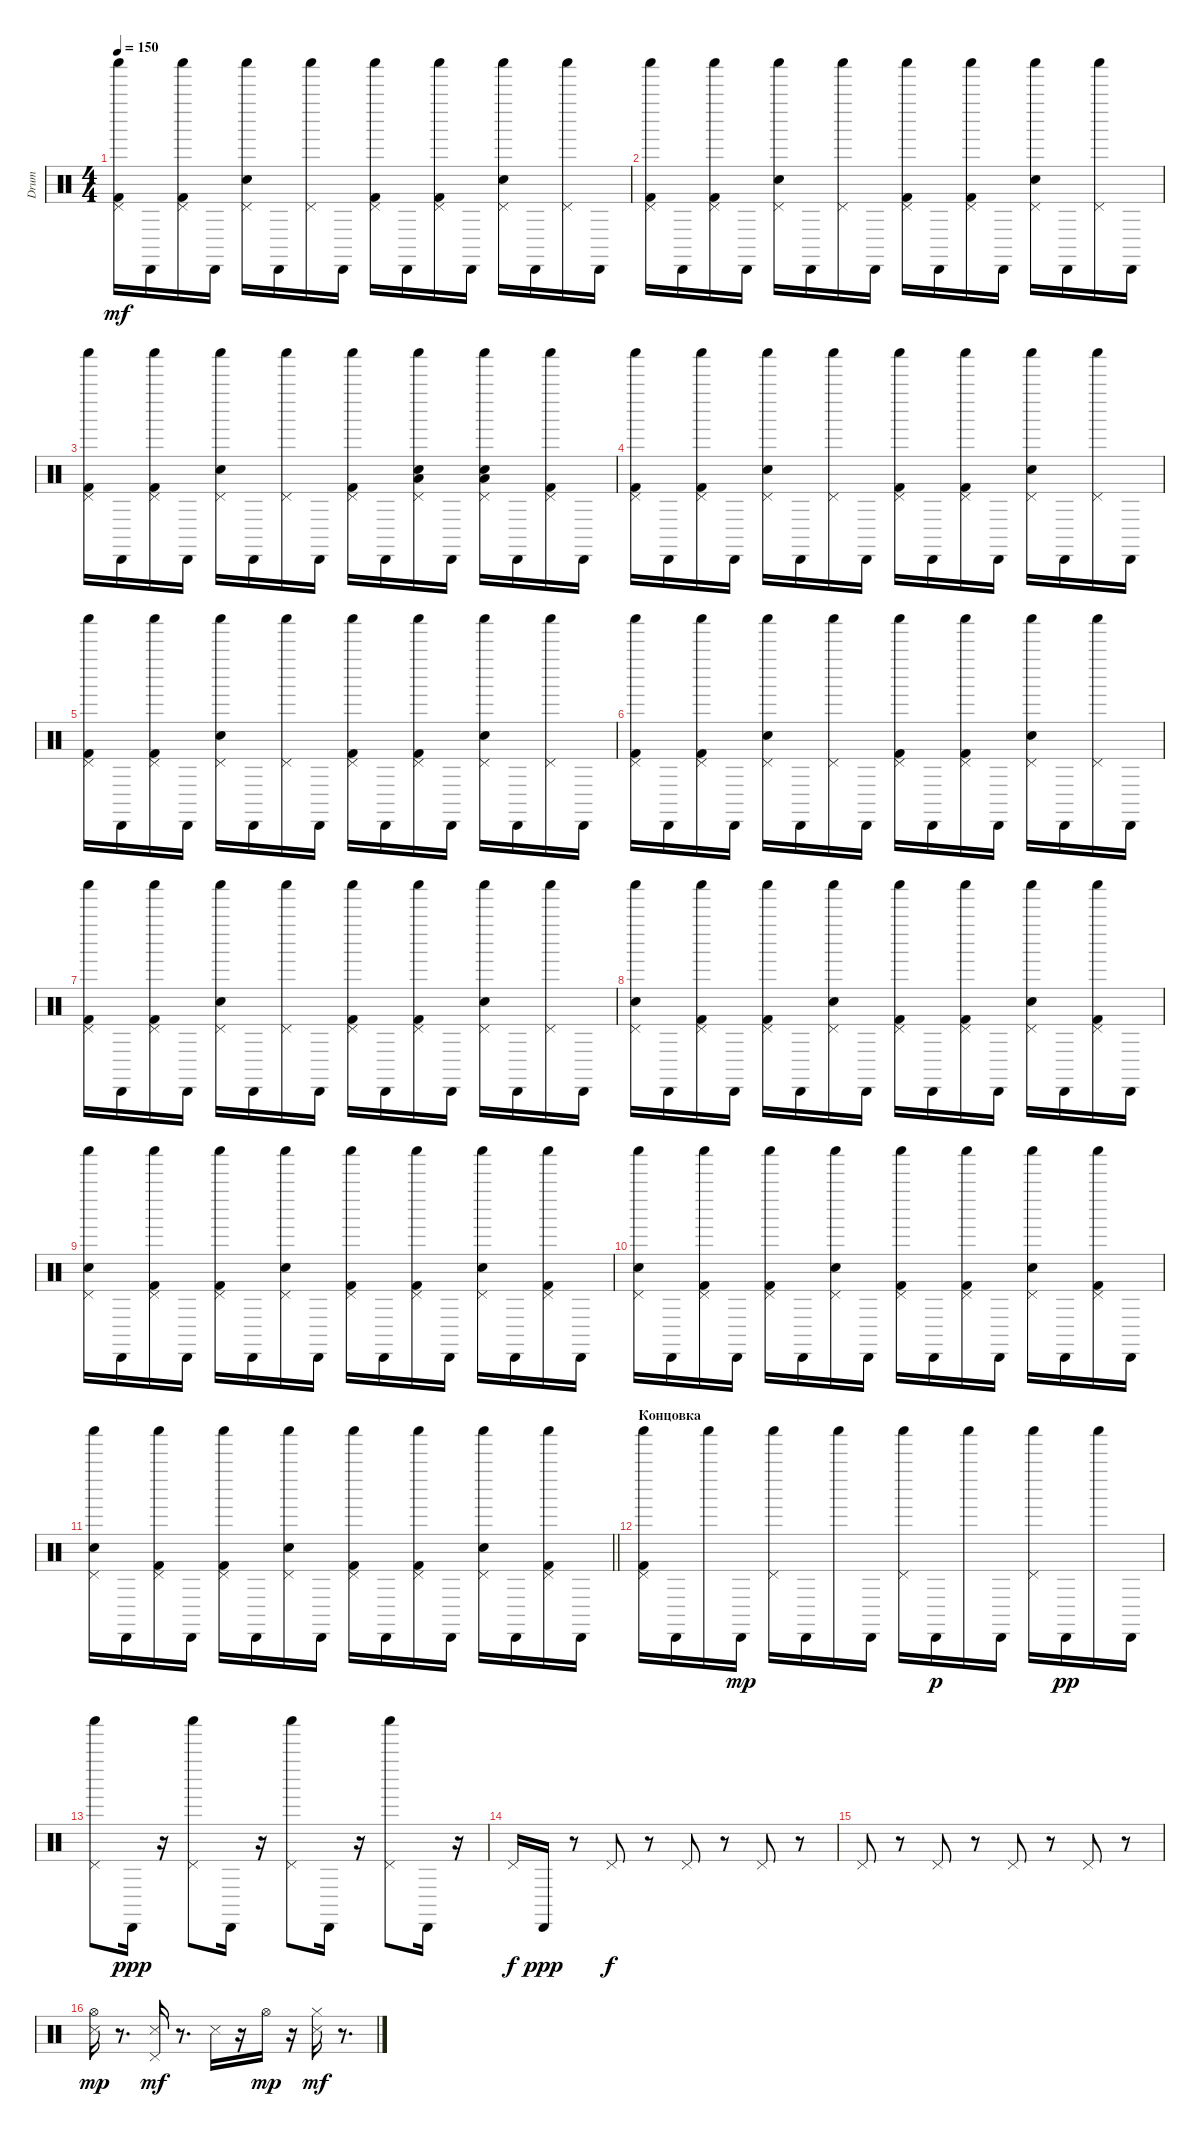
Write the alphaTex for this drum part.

\track ("Drum" "Drum") {instrument percussion}
\staff {score}
\articulation defaults
\ts (4 4)
\tempo 150
\clef neutral
\ks c
("Shaker (hit)" "Pedal Hi-Hat (hit)" "Kick (hit) 2").16{dy mf} "Cabasa (hit)".16 ("Pedal Hi-Hat (hit)" "Kick (hit) 2" "Shaker (hit)").16 "Cabasa (hit)".16 ("Shaker (hit)" "Pedal Hi-Hat (hit)" "Snare (hit) 2").16 "Cabasa (hit)".16 ("Pedal Hi-Hat (hit)" "Shaker (hit)").16 "Cabasa (hit)".16 ("Shaker (hit)" "Pedal Hi-Hat (hit)" "Kick (hit) 2").16 "Cabasa (hit)".16 ("Pedal Hi-Hat (hit)" "Kick (hit) 2" "Shaker (hit)").16 "Cabasa (hit)".16 ("Shaker (hit)" "Pedal Hi-Hat (hit)" "Snare (hit) 2").16 "Cabasa (hit)".16 ("Pedal Hi-Hat (hit)" "Shaker (hit)").16 "Cabasa (hit)".16 |
("Shaker (hit)" "Pedal Hi-Hat (hit)" "Kick (hit) 2").16 "Cabasa (hit)".16 ("Pedal Hi-Hat (hit)" "Kick (hit) 2" "Shaker (hit)").16 "Cabasa (hit)".16 ("Shaker (hit)" "Pedal Hi-Hat (hit)" "Snare (hit) 2").16 "Cabasa (hit)".16 ("Pedal Hi-Hat (hit)" "Shaker (hit)").16 "Cabasa (hit)".16 ("Shaker (hit)" "Pedal Hi-Hat (hit)" "Kick (hit) 2").16 "Cabasa (hit)".16 ("Pedal Hi-Hat (hit)" "Kick (hit) 2" "Shaker (hit)").16 "Cabasa (hit)".16 ("Shaker (hit)" "Pedal Hi-Hat (hit)" "Snare (hit) 2").16 "Cabasa (hit)".16 ("Pedal Hi-Hat (hit)" "Shaker (hit)").16 "Cabasa (hit)".16 |
("Shaker (hit)" "Pedal Hi-Hat (hit)" "Kick (hit) 2").16 "Cabasa (hit)".16 ("Pedal Hi-Hat (hit)" "Kick (hit) 2" "Shaker (hit)").16 "Cabasa (hit)".16 ("Shaker (hit)" "Pedal Hi-Hat (hit)" "Snare (hit) 2").16 "Cabasa (hit)".16 ("Pedal Hi-Hat (hit)" "Shaker (hit)").16 "Cabasa (hit)".16 ("Shaker (hit)" "Pedal Hi-Hat (hit)" "Kick (hit) 2").16 "Cabasa (hit)".16 ("Snare (hit) 2" "Low Floor Tom (hit)" "Pedal Hi-Hat (hit)" "Shaker (hit)").16 "Cabasa (hit)".16 ("Snare (hit) 2" "Low Floor Tom (hit)" "Shaker (hit)" "Pedal Hi-Hat (hit)").16 "Cabasa (hit)".16 ("Kick (hit) 2" "Pedal Hi-Hat (hit)" "Shaker (hit)").16 "Cabasa (hit)".16 |
("Shaker (hit)" "Pedal Hi-Hat (hit)" "Kick (hit) 2").16 "Cabasa (hit)".16 ("Pedal Hi-Hat (hit)" "Kick (hit) 2" "Shaker (hit)").16 "Cabasa (hit)".16 ("Shaker (hit)" "Pedal Hi-Hat (hit)" "Snare (hit) 2").16 "Cabasa (hit)".16 ("Pedal Hi-Hat (hit)" "Shaker (hit)").16 "Cabasa (hit)".16 ("Shaker (hit)" "Pedal Hi-Hat (hit)" "Kick (hit) 2").16 "Cabasa (hit)".16 ("Pedal Hi-Hat (hit)" "Kick (hit) 2" "Shaker (hit)").16 "Cabasa (hit)".16 ("Shaker (hit)" "Pedal Hi-Hat (hit)" "Snare (hit) 2").16 "Cabasa (hit)".16 ("Pedal Hi-Hat (hit)" "Shaker (hit)").16 "Cabasa (hit)".16 |
("Shaker (hit)" "Pedal Hi-Hat (hit)" "Kick (hit) 2").16 "Cabasa (hit)".16 ("Pedal Hi-Hat (hit)" "Kick (hit) 2" "Shaker (hit)").16 "Cabasa (hit)".16 ("Shaker (hit)" "Pedal Hi-Hat (hit)" "Snare (hit) 2").16 "Cabasa (hit)".16 ("Pedal Hi-Hat (hit)" "Shaker (hit)").16 "Cabasa (hit)".16 ("Shaker (hit)" "Pedal Hi-Hat (hit)" "Kick (hit) 2").16 "Cabasa (hit)".16 ("Pedal Hi-Hat (hit)" "Kick (hit) 2" "Shaker (hit)").16 "Cabasa (hit)".16 ("Shaker (hit)" "Pedal Hi-Hat (hit)" "Snare (hit) 2").16 "Cabasa (hit)".16 ("Pedal Hi-Hat (hit)" "Shaker (hit)").16 "Cabasa (hit)".16 |
("Shaker (hit)" "Pedal Hi-Hat (hit)" "Kick (hit) 2").16 "Cabasa (hit)".16 ("Pedal Hi-Hat (hit)" "Kick (hit) 2" "Shaker (hit)").16 "Cabasa (hit)".16 ("Shaker (hit)" "Pedal Hi-Hat (hit)" "Snare (hit) 2").16 "Cabasa (hit)".16 ("Pedal Hi-Hat (hit)" "Shaker (hit)").16 "Cabasa (hit)".16 ("Shaker (hit)" "Pedal Hi-Hat (hit)" "Kick (hit) 2").16 "Cabasa (hit)".16 ("Pedal Hi-Hat (hit)" "Kick (hit) 2" "Shaker (hit)").16 "Cabasa (hit)".16 ("Shaker (hit)" "Pedal Hi-Hat (hit)" "Snare (hit) 2").16 "Cabasa (hit)".16 ("Pedal Hi-Hat (hit)" "Shaker (hit)").16 "Cabasa (hit)".16 |
("Shaker (hit)" "Pedal Hi-Hat (hit)" "Kick (hit) 2").16 "Cabasa (hit)".16 ("Pedal Hi-Hat (hit)" "Kick (hit) 2" "Shaker (hit)").16 "Cabasa (hit)".16 ("Shaker (hit)" "Pedal Hi-Hat (hit)" "Snare (hit) 2").16 "Cabasa (hit)".16 ("Pedal Hi-Hat (hit)" "Shaker (hit)").16 "Cabasa (hit)".16 ("Shaker (hit)" "Pedal Hi-Hat (hit)" "Kick (hit) 2").16 "Cabasa (hit)".16 ("Pedal Hi-Hat (hit)" "Kick (hit) 2" "Shaker (hit)").16 "Cabasa (hit)".16 ("Shaker (hit)" "Pedal Hi-Hat (hit)" "Snare (hit) 2").16 "Cabasa (hit)".16 ("Pedal Hi-Hat (hit)" "Shaker (hit)").16 "Cabasa (hit)".16 |
("Snare (hit) 2" "Shaker (hit)" "Pedal Hi-Hat (hit)").16 "Cabasa (hit)".16 ("Pedal Hi-Hat (hit)" "Kick (hit) 2" "Shaker (hit)").16 "Cabasa (hit)".16 ("Kick (hit) 2" "Shaker (hit)" "Pedal Hi-Hat (hit)").16 "Cabasa (hit)".16 ("Snare (hit) 2" "Pedal Hi-Hat (hit)" "Shaker (hit)").16 "Cabasa (hit)".16 ("Shaker (hit)" "Pedal Hi-Hat (hit)" "Kick (hit) 2").16 "Cabasa (hit)".16 ("Pedal Hi-Hat (hit)" "Kick (hit) 2" "Shaker (hit)").16 "Cabasa (hit)".16 ("Shaker (hit)" "Pedal Hi-Hat (hit)" "Snare (hit) 2").16 "Cabasa (hit)".16 ("Kick (hit) 2" "Pedal Hi-Hat (hit)" "Shaker (hit)").16 "Cabasa (hit)".16 |
("Snare (hit) 2" "Shaker (hit)" "Pedal Hi-Hat (hit)").16 "Cabasa (hit)".16 ("Pedal Hi-Hat (hit)" "Kick (hit) 2" "Shaker (hit)").16 "Cabasa (hit)".16 ("Kick (hit) 2" "Shaker (hit)" "Pedal Hi-Hat (hit)").16 "Cabasa (hit)".16 ("Snare (hit) 2" "Pedal Hi-Hat (hit)" "Shaker (hit)").16 "Cabasa (hit)".16 ("Shaker (hit)" "Pedal Hi-Hat (hit)" "Kick (hit) 2").16 "Cabasa (hit)".16 ("Pedal Hi-Hat (hit)" "Kick (hit) 2" "Shaker (hit)").16 "Cabasa (hit)".16 ("Shaker (hit)" "Pedal Hi-Hat (hit)" "Snare (hit) 2").16 "Cabasa (hit)".16 ("Kick (hit) 2" "Pedal Hi-Hat (hit)" "Shaker (hit)").16 "Cabasa (hit)".16 |
("Snare (hit) 2" "Shaker (hit)" "Pedal Hi-Hat (hit)").16 "Cabasa (hit)".16 ("Pedal Hi-Hat (hit)" "Kick (hit) 2" "Shaker (hit)").16 "Cabasa (hit)".16 ("Kick (hit) 2" "Shaker (hit)" "Pedal Hi-Hat (hit)").16 "Cabasa (hit)".16 ("Snare (hit) 2" "Pedal Hi-Hat (hit)" "Shaker (hit)").16 "Cabasa (hit)".16 ("Shaker (hit)" "Pedal Hi-Hat (hit)" "Kick (hit) 2").16 "Cabasa (hit)".16 ("Pedal Hi-Hat (hit)" "Kick (hit) 2" "Shaker (hit)").16 "Cabasa (hit)".16 ("Shaker (hit)" "Pedal Hi-Hat (hit)" "Snare (hit) 2").16 "Cabasa (hit)".16 ("Kick (hit) 2" "Pedal Hi-Hat (hit)" "Shaker (hit)").16 "Cabasa (hit)".16 |
\barLineRight lightlight
("Snare (hit) 2" "Shaker (hit)" "Pedal Hi-Hat (hit)").16 "Cabasa (hit)".16 ("Pedal Hi-Hat (hit)" "Kick (hit) 2" "Shaker (hit)").16 "Cabasa (hit)".16 ("Kick (hit) 2" "Shaker (hit)" "Pedal Hi-Hat (hit)").16 "Cabasa (hit)".16 ("Snare (hit) 2" "Pedal Hi-Hat (hit)" "Shaker (hit)").16 "Cabasa (hit)".16 ("Shaker (hit)" "Pedal Hi-Hat (hit)" "Kick (hit) 2").16 "Cabasa (hit)".16 ("Pedal Hi-Hat (hit)" "Kick (hit) 2" "Shaker (hit)").16 "Cabasa (hit)".16 ("Shaker (hit)" "Pedal Hi-Hat (hit)" "Snare (hit) 2").16 "Cabasa (hit)".16 ("Kick (hit) 2" "Pedal Hi-Hat (hit)" "Shaker (hit)").16 "Cabasa (hit)".16 |
\section ("" "Концовка")
("Kick (hit) 2" "Shaker (hit)" "Pedal Hi-Hat (hit)").16 "Cabasa (hit)".16 "Shaker (hit)".16 "Cabasa (hit)".16{dy mp} ("Shaker (hit)" "Pedal Hi-Hat (hit)").16 "Cabasa (hit)".16 "Shaker (hit)".16 "Cabasa (hit)".16 ("Pedal Hi-Hat (hit)" "Shaker (hit)").16 "Cabasa (hit)".16{dy p} "Shaker (hit)".16 "Cabasa (hit)".16 ("Pedal Hi-Hat (hit)" "Shaker (hit)").16 "Cabasa (hit)".16{dy pp} "Shaker (hit)".16 "Cabasa (hit)".16 |
("Pedal Hi-Hat (hit)" "Shaker (hit)").8 "Cabasa (hit)".16{dy ppp} r.16 ("Shaker (hit)" "Pedal Hi-Hat (hit)").8 "Cabasa (hit)".16 r.16 ("Shaker (hit)" "Pedal Hi-Hat (hit)").8 "Cabasa (hit)".16 r.16 ("Shaker (hit)" "Pedal Hi-Hat (hit)").8 "Cabasa (hit)".16 r.16 |
"Pedal Hi-Hat (hit)".16{dy f} "Cabasa (hit)".16{dy ppp} r.8 "Pedal Hi-Hat (hit)".8{dy f} r.8 "Pedal Hi-Hat (hit)".8 r.8 "Pedal Hi-Hat (hit)".8 r.8 |
"Pedal Hi-Hat (hit)".8 r.8 "Pedal Hi-Hat (hit)".8 r.8 "Pedal Hi-Hat (hit)".8 r.8 "Pedal Hi-Hat (hit)".8 r.8 |
("Snare (side stick) 3" "Hi-Hat (open)").16{dy mp} r.8{d} ("Snare (side stick) 3" "Pedal Hi-Hat (hit)").16{dy mf} r.8{d} "Snare (side stick) 3".16 r.16 "Hi-Hat (open)".16{dy mp} r.16 ("Snare (side stick) 3" "Hi-Hat (closed)").16{dy mf} r.8{d}
